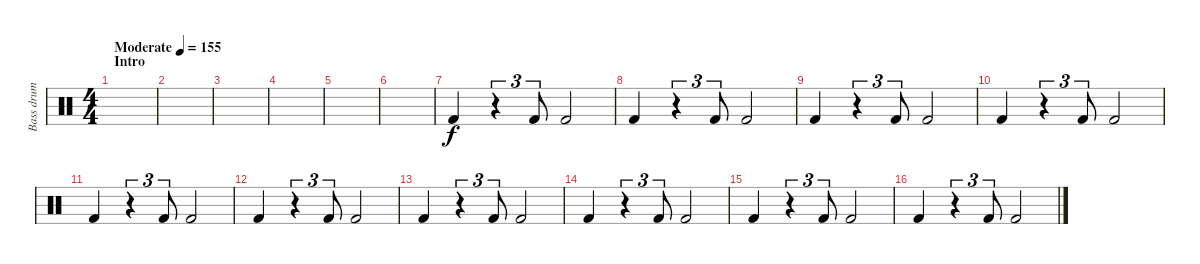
\track ("Bass drum" "Bass drum") {instrument percussion}
\staff {score}
\articulation defaults
\ts (4 4)
\section ("" "Intro")
\tempo (155 "Moderate")
\clef neutral
\ks c
|
|
|
|
|
|
"Kick (hit) 2".4 r.4{tu (3 2)} "Kick (hit) 2".8{tu (3 2)} "Kick (hit) 2".2 |
"Kick (hit) 2".4 r.4{tu (3 2)} "Kick (hit) 2".8{tu (3 2)} "Kick (hit) 2".2 |
"Kick (hit) 2".4 r.4{tu (3 2)} "Kick (hit) 2".8{tu (3 2)} "Kick (hit) 2".2 |
"Kick (hit) 2".4 r.4{tu (3 2)} "Kick (hit) 2".8{tu (3 2)} "Kick (hit) 2".2 |
"Kick (hit) 2".4 r.4{tu (3 2)} "Kick (hit) 2".8{tu (3 2)} "Kick (hit) 2".2 |
"Kick (hit) 2".4 r.4{tu (3 2)} "Kick (hit) 2".8{tu (3 2)} "Kick (hit) 2".2 |
"Kick (hit) 2".4 r.4{tu (3 2)} "Kick (hit) 2".8{tu (3 2)} "Kick (hit) 2".2 |
"Kick (hit) 2".4 r.4{tu (3 2)} "Kick (hit) 2".8{tu (3 2)} "Kick (hit) 2".2 |
"Kick (hit) 2".4 r.4{tu (3 2)} "Kick (hit) 2".8{tu (3 2)} "Kick (hit) 2".2 |
"Kick (hit) 2".4 r.4{tu (3 2)} "Kick (hit) 2".8{tu (3 2)} "Kick (hit) 2".2
